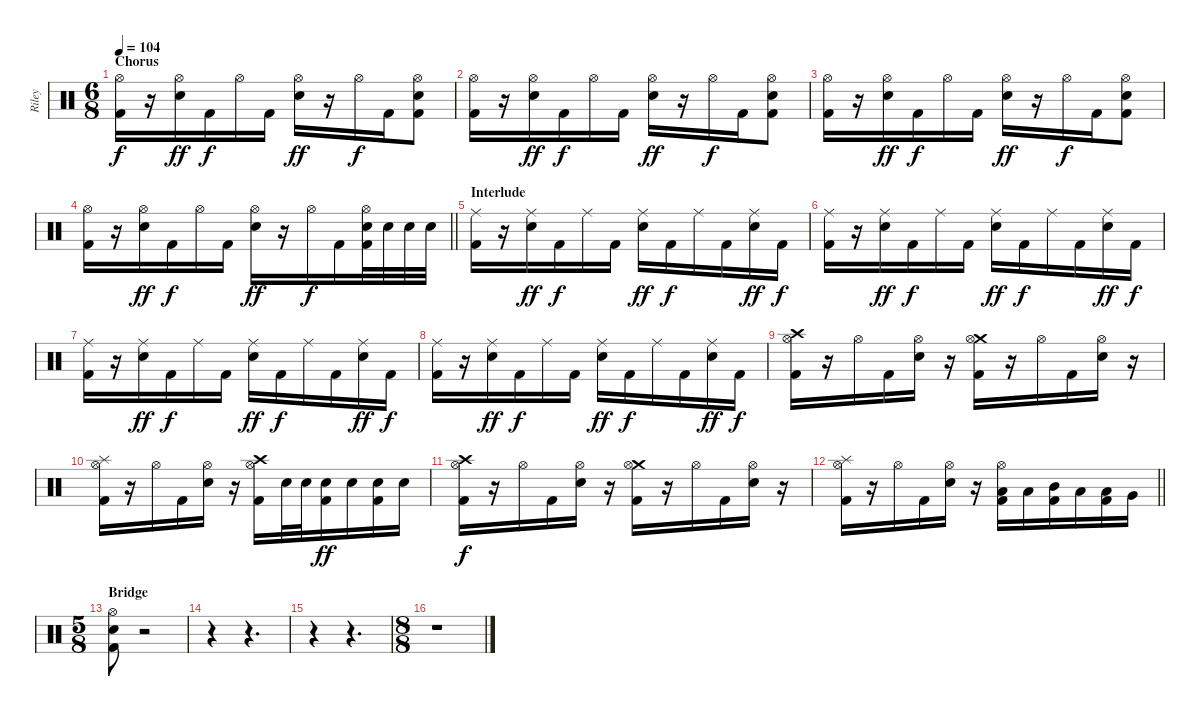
\track ("Riley" "Riley") {instrument percussion}
\staff {score}
\articulation defaults
\ts (6 8)
\section ("" "Chorus")
\tempo 104
\clef neutral
\ks c
("Hi-Hat (open)" "Kick (hit) 2").16{dy f} r.16 ("Hi-Hat (open)" "Electric Snare (hit)").16{dy ff} "Kick (hit) 2".16{dy f} "Hi-Hat (open)".16 "Kick (hit) 2".16 ("Hi-Hat (open)" "Electric Snare (hit)").16{dy ff} r.16 "Hi-Hat (open)".16{dy f} "Kick (hit) 2".16 ("Hi-Hat (open)" "Electric Snare (hit)" "Kick (hit) 2").8 |
("Hi-Hat (open)" "Kick (hit) 2").16 r.16 ("Hi-Hat (open)" "Electric Snare (hit)").16{dy ff} "Kick (hit) 2".16{dy f} "Hi-Hat (open)".16 "Kick (hit) 2".16 ("Hi-Hat (open)" "Electric Snare (hit)").16{dy ff} r.16 "Hi-Hat (open)".16{dy f} "Kick (hit) 2".16 ("Hi-Hat (open)" "Electric Snare (hit)" "Kick (hit) 2").8 |
("Hi-Hat (open)" "Kick (hit) 2").16 r.16 ("Hi-Hat (open)" "Electric Snare (hit)").16{dy ff} "Kick (hit) 2".16{dy f} "Hi-Hat (open)".16 "Kick (hit) 2".16 ("Hi-Hat (open)" "Electric Snare (hit)").16{dy ff} r.16 "Hi-Hat (open)".16{dy f} "Kick (hit) 2".16 ("Hi-Hat (open)" "Electric Snare (hit)" "Kick (hit) 2").8 |
\barLineRight lightlight
("Hi-Hat (open)" "Kick (hit) 2").16 r.16 ("Hi-Hat (open)" "Electric Snare (hit)").16{dy ff} "Kick (hit) 2".16{dy f} "Hi-Hat (open)".16 "Kick (hit) 2".16 ("Hi-Hat (open)" "Electric Snare (hit)").16{dy ff} r.16 "Hi-Hat (open)".16{dy f} "Kick (hit) 2".16 ("Hi-Hat (open)" "Electric Snare (hit)" "Kick (hit) 2").32 "Electric Snare (hit)".32 "Electric Snare (hit)".32 "Electric Snare (hit)".32 |
\section ("" "Interlude")
("Ride (middle)" "Kick (hit) 2").16 r.16 ("Ride (middle)" "Electric Snare (hit)").16{dy ff} "Kick (hit) 2".16{dy f} "Ride (middle)".16 "Kick (hit) 2".16 ("Ride (middle)" "Electric Snare (hit)").16{dy ff} "Kick (hit) 2".16{dy f} "Ride (middle)".16 "Kick (hit) 2".16 ("Ride (middle)" "Electric Snare (hit)").16{dy ff} "Kick (hit) 2".16{dy f} |
("Ride (middle)" "Kick (hit) 2").16 r.16 ("Ride (middle)" "Electric Snare (hit)").16{dy ff} "Kick (hit) 2".16{dy f} "Ride (middle)".16 "Kick (hit) 2".16 ("Ride (middle)" "Electric Snare (hit)").16{dy ff} "Kick (hit) 2".16{dy f} "Ride (middle)".16 "Kick (hit) 2".16 ("Ride (middle)" "Electric Snare (hit)").16{dy ff} "Kick (hit) 2".16{dy f} |
("Ride (middle)" "Kick (hit) 2").16 r.16 ("Ride (middle)" "Electric Snare (hit)").16{dy ff} "Kick (hit) 2".16{dy f} "Ride (middle)".16 "Kick (hit) 2".16 ("Ride (middle)" "Electric Snare (hit)").16{dy ff} "Kick (hit) 2".16{dy f} "Ride (middle)".16 "Kick (hit) 2".16 ("Ride (middle)" "Electric Snare (hit)").16{dy ff} "Kick (hit) 2".16{dy f} |
("Ride (middle)" "Kick (hit) 2").16 r.16 ("Ride (middle)" "Electric Snare (hit)").16{dy ff} "Kick (hit) 2".16{dy f} "Ride (middle)".16 "Kick (hit) 2".16 ("Ride (middle)" "Electric Snare (hit)").16{dy ff} "Kick (hit) 2".16{dy f} "Ride (middle)".16 "Kick (hit) 2".16 ("Ride (middle)" "Electric Snare (hit)").16{dy ff} "Kick (hit) 2".16{dy f} |
("Crash high (hit)" "Hi-Hat (open)" "Kick (hit) 2").16 r.16 "Hi-Hat (open)".16 "Kick (hit) 2".16 ("Hi-Hat (open)" "Electric Snare (hit)").16 r.16 ("Crash medium (hit)" "Hi-Hat (open)" "Kick (hit) 2").16 r.16 "Hi-Hat (open)".16 "Kick (hit) 2".16 ("Hi-Hat (open)" "Electric Snare (hit)").16 r.16 |
("Splash (hit)" "Hi-Hat (open)" "Kick (hit) 2").16 r.16 "Hi-Hat (open)".16 "Kick (hit) 2".16 ("Hi-Hat (open)" "Electric Snare (hit)").16 r.16 ("Crash high (hit)" "Hi-Hat (open)" "Kick (hit) 2").16 "Electric Snare (hit)".32 "Electric Snare (hit)".32 ("Electric Snare (hit)" "Kick (hit) 2").16{dy ff} "Electric Snare (hit)".16 ("Electric Snare (hit)" "Kick (hit) 2").16 "Electric Snare (hit)".16 |
("Crash high (hit)" "Hi-Hat (open)" "Kick (hit) 2").16{dy f} r.16 "Hi-Hat (open)".16 "Kick (hit) 2".16 ("Hi-Hat (open)" "Electric Snare (hit)").16 r.16 ("Crash medium (hit)" "Hi-Hat (open)" "Kick (hit) 2").16 r.16 "Hi-Hat (open)".16 "Kick (hit) 2".16 ("Hi-Hat (open)" "Electric Snare (hit)").16 r.16 |
\barLineRight lightlight
("Splash (hit)" "Hi-Hat (open)" "Kick (hit) 2").16 r.16 "Hi-Hat (open)".16 "Kick (hit) 2".16 ("Hi-Hat (open)" "Electric Snare (hit)").16 r.16 ("Hi-Hat (open)" "Low Tom (hit)" "Kick (hit) 2").16 "Low Tom (hit)".16 ("Mid Tom (hit)" "Kick (hit) 2").16 "Low Tom (hit)".16 ("Low Tom (hit)" "Kick (hit) 2").16 "Very Low Tom (hit)".16 |
\ts (5 8)
\section ("" "Bridge")
("Hi-Hat (open)" "Electric Snare (hit)" "Kick (hit) 2").8 r.2 |
r.4 r.4{d} |
r.4 r.4{d} |
\ts (8 8)
r.1
